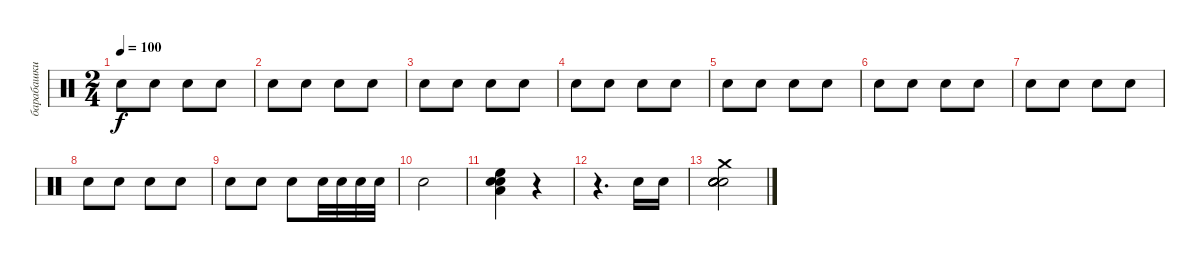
\track ("барабашки middle" "барабашки ") {instrument percussion}
\staff {score}
\articulation defaults
\ts (2 4)
\tempo 100
\clef neutral
\ks c "Electric Snare (hit)".8{dy f} "Electric Snare (hit)".8 "Electric Snare (hit)".8 "Electric Snare (hit)".8
|
"Electric Snare (hit)".8 "Electric Snare (hit)".8 "Electric Snare (hit)".8 "Electric Snare (hit)".8 |
"Electric Snare (hit)".8 "Electric Snare (hit)".8 "Electric Snare (hit)".8 "Electric Snare (hit)".8 |
"Electric Snare (hit)".8 "Electric Snare (hit)".8 "Electric Snare (hit)".8 "Electric Snare (hit)".8 |
"Electric Snare (hit)".8 "Electric Snare (hit)".8 "Electric Snare (hit)".8 "Electric Snare (hit)".8 |
"Electric Snare (hit)".8 "Electric Snare (hit)".8 "Electric Snare (hit)".8 "Electric Snare (hit)".8 |
"Electric Snare (hit)".8 "Electric Snare (hit)".8 "Electric Snare (hit)".8 "Electric Snare (hit)".8 |
"Electric Snare (hit)".8 "Electric Snare (hit)".8 "Electric Snare (hit)".8 "Electric Snare (hit)".8 |
"Electric Snare (hit)".8 "Electric Snare (hit)".8 "Electric Snare (hit)".8 "Electric Snare (hit)".32 "Electric Snare (hit)".32 "Electric Snare (hit)".32 "Electric Snare (hit)".32 |
"Electric Snare (hit)".2 |
("High Floor Tom (hit)" "Electric Snare (hit)" "Snare (hit) 2" "Low Floor Tom (hit)").4 r.4 |
r.4{d} "Electric Snare (hit)".16 "Electric Snare (hit)".16 |
("Crash medium (hit)" "Snare (hit) 2" "Snare (hit) 2" "Electric Snare (hit)" "Electric Snare (hit)" "Electric Snare (hit)").2
